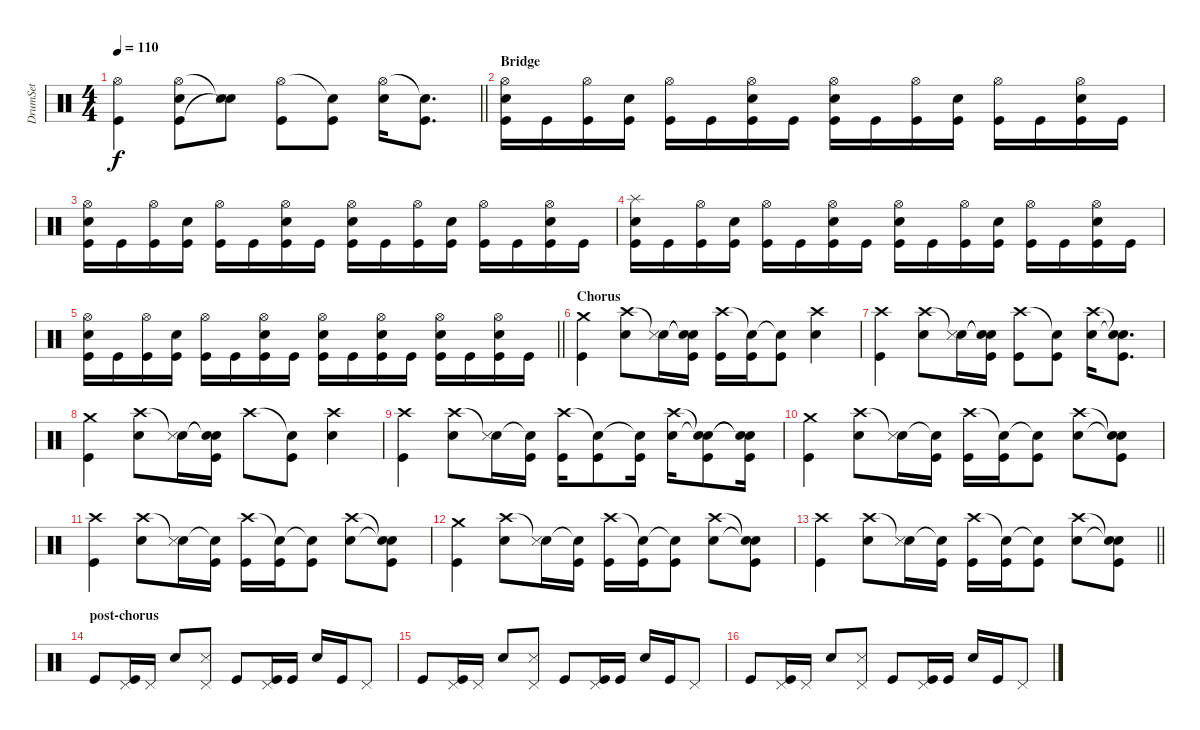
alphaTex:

\track ("DrumSet" "DrumSet") {instrument percussion}
\staff {score}
\articulation defaults
\ts (4 4)
\tempo 110
\clef neutral
\barLineRight lightlight
\ks c
("Hi-Hat (open)" "Kick (hit)").4{dy f} ("Hi-Hat (open)" "Snare (hit) 2" "Kick (hit)").8 ("Snare (hit)"{t} "Snare (side stick) 3" "Snare (hit)"{t}).8 ("Hi-Hat (open)" "Kick (hit)").8 ("Snare (hit)"{t} "Kick (hit)").8 ("Hi-Hat (open)" "Snare (hit) 2").16 ("Snare (hit)"{t} "Kick (hit)").8{d} |
\section ("" "Bridge")
("Hi-Hat (open)" "Snare (hit) 2" "Kick (hit)").16 "Kick (hit)".16 ("Hi-Hat (open)" "Kick (hit)").16 ("Snare (hit) 2" "Kick (hit)").16 ("Hi-Hat (open)" "Kick (hit)").16 "Kick (hit)".16 ("Hi-Hat (open)" "Snare (hit) 2" "Kick (hit)").16 "Kick (hit)".16 ("Hi-Hat (open)" "Snare (hit) 2" "Kick (hit)").16 "Kick (hit)".16 ("Hi-Hat (open)" "Kick (hit)").16 ("Snare (hit) 2" "Kick (hit)").16 ("Hi-Hat (open)" "Kick (hit)").16 "Kick (hit)".16 ("Hi-Hat (open)" "Snare (hit) 2" "Kick (hit)").16 "Kick (hit)".16 |
("Hi-Hat (open)" "Snare (hit) 2" "Kick (hit)").16 "Kick (hit)".16 ("Hi-Hat (open)" "Kick (hit)").16 ("Snare (hit) 2" "Kick (hit)").16 ("Hi-Hat (open)" "Kick (hit)").16 "Kick (hit)".16 ("Hi-Hat (open)" "Snare (hit) 2" "Kick (hit)").16 "Kick (hit)".16 ("Hi-Hat (open)" "Snare (hit) 2" "Kick (hit)").16 "Kick (hit)".16 ("Hi-Hat (open)" "Kick (hit)").16 ("Snare (hit) 2" "Kick (hit)").16 ("Hi-Hat (open)" "Kick (hit)").16 "Kick (hit)".16 ("Hi-Hat (open)" "Snare (hit) 2" "Kick (hit)").16 "Kick (hit)".16 |
("Splash (hit)" "Snare (hit) 2" "Kick (hit)").16 "Kick (hit)".16 ("Hi-Hat (open)" "Kick (hit)").16 ("Snare (hit) 2" "Kick (hit)").16 ("Hi-Hat (open)" "Kick (hit)").16 "Kick (hit)".16 ("Hi-Hat (open)" "Snare (hit) 2" "Kick (hit)").16 "Kick (hit)".16 ("Hi-Hat (open)" "Snare (hit) 2" "Kick (hit)").16 "Kick (hit)".16 ("Hi-Hat (open)" "Kick (hit)").16 ("Snare (hit) 2" "Kick (hit)").16 ("Hi-Hat (open)" "Kick (hit)").16 "Kick (hit)".16 ("Hi-Hat (open)" "Snare (hit) 2" "Kick (hit)").16 "Kick (hit)".16 |
\barLineRight lightlight
("Hi-Hat (open)" "Snare (hit) 2" "Kick (hit)").16 "Kick (hit)".16 ("Hi-Hat (open)" "Kick (hit)").16 ("Snare (hit) 2" "Kick (hit)").16 ("Hi-Hat (open)" "Kick (hit)").16 "Kick (hit)".16 ("Hi-Hat (open)" "Snare (hit) 2" "Kick (hit)").16 "Kick (hit)".16 ("Hi-Hat (open)" "Snare (hit) 2" "Kick (hit)").16 "Kick (hit)".16 ("Hi-Hat (open)" "Snare (hit) 2" "Kick (hit)").16 "Kick (hit)".16 ("Hi-Hat (open)" "Snare (hit) 2" "Kick (hit)").16 "Kick (hit)".16 ("Hi-Hat (open)" "Snare (hit) 2" "Kick (hit)").16 "Kick (hit)".16 |
\section ("" "Chorus")
("Crash medium (hit)" "Kick (hit)").4 ("Crash high (hit)" "Snare (hit) 2").8 ("Snare (hit)"{t} "Snare (side stick) 3").16 ("Snare (hit)"{t} "Snare (hit)"{t} "Kick (hit)").16 ("Crash high (hit)" "Kick (hit)").16 ("Snare (hit)"{t} "Kick (hit)").16 ("Snare (hit)"{t} "Kick (hit)").8 ("Crash high (hit)" "Snare (hit) 2").4 |
("Crash high (hit)" "Kick (hit)").4 ("Crash high (hit)" "Snare (hit) 2").8 ("Snare (hit)"{t} "Snare (side stick) 3").16 ("Snare (hit)"{t} "Snare (hit)"{t} "Kick (hit)").16 ("Crash high (hit)" "Kick (hit)").8 ("Snare (hit)"{t} "Kick (hit)").8 ("Crash high (hit)" "Snare (hit) 2").16 ("Snare (hit)"{t} "Snare (hit)"{t} "Kick (hit)").8{d} |
("Crash medium (hit)" "Kick (hit)").4 ("Crash high (hit)" "Snare (hit) 2").8 ("Snare (hit)"{t} "Snare (side stick) 3").16 ("Snare (hit)"{t} "Snare (hit)"{t} "Kick (hit)").16 "Crash high (hit)".8 ("Snare (hit)"{t} "Kick (hit)").8 ("Crash high (hit)" "Snare (hit) 2").4 |
("Crash high (hit)" "Kick (hit)").4 ("Crash high (hit)" "Snare (hit) 2").8 ("Snare (hit)"{t} "Snare (side stick) 3").16 ("Snare (hit)"{t} "Kick (hit)").16 ("Crash high (hit)" "Kick (hit)").16 ("Snare (hit)"{t} "Kick (hit)").8 ("Snare (hit)"{t} "Kick (hit)").16 ("Crash high (hit)" "Snare (hit) 2").16 ("Snare (hit)"{t} "Snare (hit)"{t} "Kick (hit)").8 ("Snare (hit)"{t} "Snare (hit)"{t} "Kick (hit)").16 |
("Crash medium (hit)" "Kick (hit)").4 ("Crash high (hit)" "Snare (hit) 2").8 ("Snare (hit)"{t} "Snare (side stick) 3").16 ("Snare (hit)"{t} "Kick (hit)").16 ("Crash high (hit)" "Kick (hit)").16 ("Snare (hit)"{t} "Kick (hit)").16 ("Snare (hit)"{t} "Kick (hit)").8 ("Crash high (hit)" "Snare (hit) 2").8 ("Snare (hit)"{t} "Snare (hit)"{t} "Kick (hit)").8 |
("Crash high (hit)" "Kick (hit)").4 ("Crash high (hit)" "Snare (hit) 2").8 ("Snare (hit)"{t} "Snare (side stick) 3").16 ("Snare (hit)"{t} "Kick (hit)").16 ("Crash high (hit)" "Kick (hit)").16 ("Snare (hit)"{t} "Kick (hit)").16 ("Snare (hit)"{t} "Kick (hit)").8 ("Crash high (hit)" "Snare (hit) 2").8 ("Snare (hit)"{t} "Snare (hit)"{t} "Kick (hit)").8 |
("Crash medium (hit)" "Kick (hit)").4 ("Crash high (hit)" "Snare (hit) 2").8 ("Snare (hit)"{t} "Snare (side stick) 3").16 ("Snare (hit)"{t} "Kick (hit)").16 ("Crash high (hit)" "Kick (hit)").16 ("Snare (hit)"{t} "Kick (hit)").16 ("Snare (hit)"{t} "Kick (hit)").8 ("Crash high (hit)" "Snare (hit) 2").8 ("Snare (hit)"{t} "Snare (hit)"{t} "Kick (hit)").8 |
\barLineRight lightlight
("Crash high (hit)" "Kick (hit)").4 ("Crash high (hit)" "Snare (hit) 2").8 ("Snare (hit)"{t} "Snare (side stick) 3").16 ("Snare (hit)"{t} "Kick (hit)").16 ("Crash high (hit)" "Kick (hit)").16 ("Snare (hit)"{t} "Kick (hit)").16 ("Snare (hit)"{t} "Kick (hit)").8 ("Crash high (hit)" "Snare (hit) 2").8 ("Snare (hit)"{t} "Snare (hit)"{t} "Kick (hit)").8 |
\section ("" "post-chorus")
"Kick (hit)".8 ("Pedal Hi-Hat (hit)" "Kick (hit)").16 "Pedal Hi-Hat (hit)".16 "Snare (hit) 2".8 ("Snare (side stick) 3" "Pedal Hi-Hat (hit)").8 "Kick (hit)".8 ("Pedal Hi-Hat (hit)" "Kick (hit)").16 "Kick (hit)".16 "Snare (hit) 2".16 "Kick (hit)".16 "Pedal Hi-Hat (hit)".8 |
"Kick (hit)".8 ("Pedal Hi-Hat (hit)" "Kick (hit)").16 "Pedal Hi-Hat (hit)".16 "Snare (hit) 2".8 ("Snare (side stick) 3" "Pedal Hi-Hat (hit)").8 "Kick (hit)".8 ("Pedal Hi-Hat (hit)" "Kick (hit)").16 "Kick (hit)".16 "Snare (hit) 2".16 "Kick (hit)".16 "Pedal Hi-Hat (hit)".8 |
"Kick (hit)".8 ("Pedal Hi-Hat (hit)" "Kick (hit)").16 "Pedal Hi-Hat (hit)".16 "Snare (hit) 2".8 ("Snare (side stick) 3" "Pedal Hi-Hat (hit)").8 "Kick (hit)".8 ("Pedal Hi-Hat (hit)" "Kick (hit)").16 "Kick (hit)".16 "Snare (hit) 2".16 "Kick (hit)".16 "Pedal Hi-Hat (hit)".8
